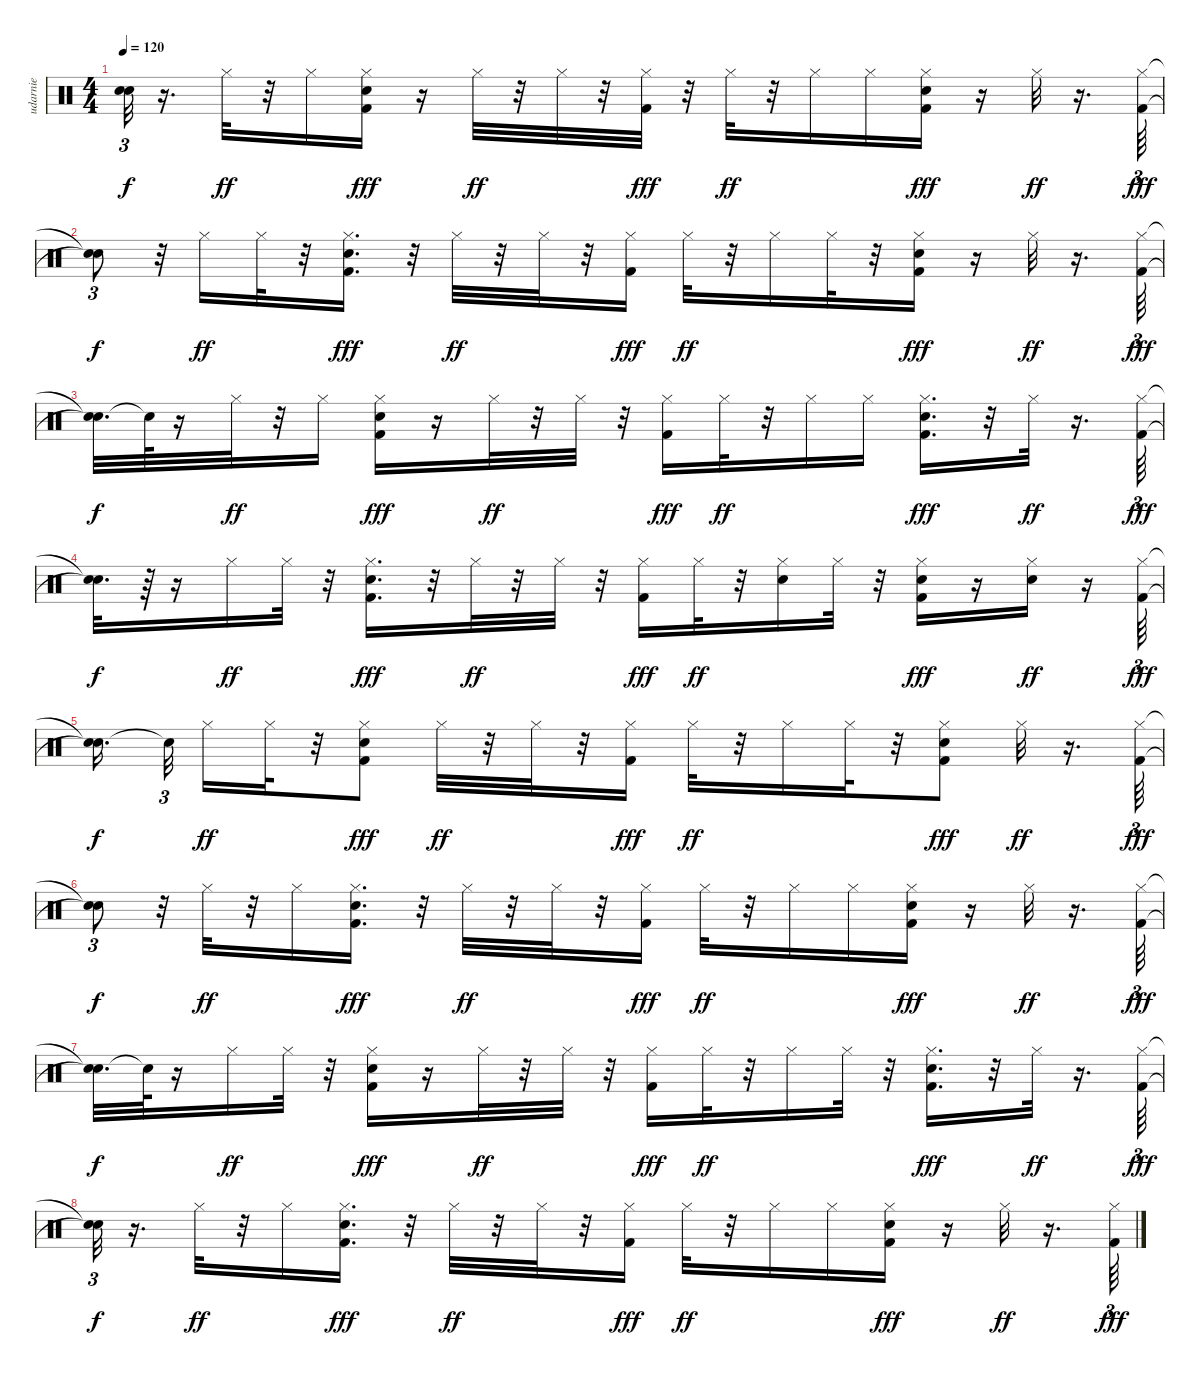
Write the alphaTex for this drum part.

\track ("udarnie" "udarnie") {instrument percussion}
\staff {score}
\articulation defaults
\ts (4 4)
\tempo 120
\clef neutral
\ks c
("Snare (hit)"{t} "Snare (hit)"{t}).32{tu (3 2) dy f} r.16{d} "Hi-Hat (closed)".32{dy ff} r.32 "Hi-Hat (closed)".16 ("Hi-Hat (closed)" "Electric Snare (hit)" "Kick (hit) 2").16{dy fff} r.16 "Hi-Hat (closed)".32{dy ff} r.32 "Hi-Hat (closed)".32 r.32 ("Hi-Hat (closed)" "Kick (hit) 2").32{dy fff} r.32 "Hi-Hat (closed)".32{dy ff} r.32 "Hi-Hat (closed)".16 "Hi-Hat (closed)".16 ("Hi-Hat (closed)" "Electric Snare (hit)" "Kick (hit) 2").16{dy fff} r.16 "Hi-Hat (closed)".32{dy ff} r.16{d} ("Hi-Hat (closed)" "Kick (hit) 2").64{tu (3 2) dy fff} |
("Snare (hit)"{t} "Snare (hit)"{t}).8{tu (3 2) dy f} r.32 "Hi-Hat (closed)".16{dy ff} "Hi-Hat (closed)".32 r.32 ("Hi-Hat (closed)" "Electric Snare (hit)" "Kick (hit) 2").16{d dy fff} r.32 "Hi-Hat (closed)".32{dy ff} r.32 "Hi-Hat (closed)".32 r.32 ("Hi-Hat (closed)" "Kick (hit) 2").16{dy fff} "Hi-Hat (closed)".32{dy ff} r.32 "Hi-Hat (closed)".16 "Hi-Hat (closed)".32 r.32 ("Hi-Hat (closed)" "Electric Snare (hit)" "Kick (hit) 2").16{dy fff} r.16 "Hi-Hat (closed)".32{dy ff} r.16{d} ("Hi-Hat (closed)" "Kick (hit) 2").64{tu (3 2) dy fff} |
("Snare (hit)"{t} "Snare (hit)"{t}).32{d dy f} "Snare (hit)"{t}.64 r.16 "Hi-Hat (closed)".32{dy ff} r.32 "Hi-Hat (closed)".16 ("Hi-Hat (closed)" "Electric Snare (hit)" "Kick (hit) 2").16{dy fff} r.16 "Hi-Hat (closed)".32{dy ff} r.32 "Hi-Hat (closed)".32 r.32 ("Hi-Hat (closed)" "Kick (hit) 2").16{dy fff} "Hi-Hat (closed)".32{dy ff} r.32 "Hi-Hat (closed)".16 "Hi-Hat (closed)".16 ("Hi-Hat (closed)" "Electric Snare (hit)" "Kick (hit) 2").16{d dy fff} r.32 "Hi-Hat (closed)".32{dy ff} r.16{d} ("Hi-Hat (closed)" "Kick (hit) 2").64{tu (3 2) dy fff} |
("Snare (hit)"{t} "Snare (hit)"{t}).32{d dy f} r.64 r.16 "Hi-Hat (closed)".16{dy ff} "Hi-Hat (closed)".32 r.32 ("Hi-Hat (closed)" "Electric Snare (hit)" "Kick (hit) 2").16{d dy fff} r.32 "Hi-Hat (closed)".32{dy ff} r.32 "Hi-Hat (closed)".32 r.32 ("Hi-Hat (closed)" "Kick (hit) 2").16{dy fff} "Hi-Hat (closed)".32{dy ff} r.32 ("Hi-Hat (closed)" "Electric Snare (hit)").16 "Hi-Hat (closed)".32 r.32 ("Hi-Hat (closed)" "Electric Snare (hit)" "Kick (hit) 2").16{dy fff} r.16 ("Hi-Hat (closed)" "Electric Snare (hit)").16{dy ff} r.16 ("Hi-Hat (closed)" "Kick (hit) 2").64{tu (3 2) dy fff} |
("Snare (hit)"{t} "Snare (hit)"{t}).16{d dy f beam splitsecondary} "Snare (hit)"{t}.32{tu (3 2) beam splitsecondary} "Hi-Hat (closed)".16{dy ff} "Hi-Hat (closed)".32 r.32 ("Hi-Hat (closed)" "Electric Snare (hit)" "Kick (hit) 2").8{dy fff} "Hi-Hat (closed)".32{dy ff} r.32 "Hi-Hat (closed)".32 r.32 ("Hi-Hat (closed)" "Kick (hit) 2").16{dy fff} "Hi-Hat (closed)".32{dy ff} r.32 "Hi-Hat (closed)".16 "Hi-Hat (closed)".32 r.32 ("Hi-Hat (closed)" "Electric Snare (hit)" "Kick (hit) 2").8{dy fff} "Hi-Hat (closed)".32{dy ff} r.16{d} ("Hi-Hat (closed)" "Kick (hit) 2").64{tu (3 2) dy fff} |
("Snare (hit)"{t} "Snare (hit)"{t}).8{tu (3 2) dy f} r.32 "Hi-Hat (closed)".32{dy ff} r.32 "Hi-Hat (closed)".16 ("Hi-Hat (closed)" "Electric Snare (hit)" "Kick (hit) 2").16{d dy fff} r.32 "Hi-Hat (closed)".32{dy ff} r.32 "Hi-Hat (closed)".32 r.32 ("Hi-Hat (closed)" "Kick (hit) 2").16{dy fff} "Hi-Hat (closed)".32{dy ff} r.32 "Hi-Hat (closed)".16 "Hi-Hat (closed)".16 ("Hi-Hat (closed)" "Electric Snare (hit)" "Kick (hit) 2").16{dy fff} r.16 "Hi-Hat (closed)".32{dy ff} r.16{d} ("Hi-Hat (closed)" "Kick (hit) 2").64{tu (3 2) dy fff} |
("Snare (hit)"{t} "Snare (hit)"{t}).32{d dy f} "Snare (hit)"{t}.64 r.16 "Hi-Hat (closed)".16{dy ff} "Hi-Hat (closed)".32 r.32 ("Hi-Hat (closed)" "Electric Snare (hit)" "Kick (hit) 2").16{dy fff} r.16 "Hi-Hat (closed)".32{dy ff} r.32 "Hi-Hat (closed)".32 r.32 ("Hi-Hat (closed)" "Kick (hit) 2").16{dy fff} "Hi-Hat (closed)".32{dy ff} r.32 "Hi-Hat (closed)".16 "Hi-Hat (closed)".32 r.32 ("Hi-Hat (closed)" "Electric Snare (hit)" "Kick (hit) 2").16{d dy fff} r.32 "Hi-Hat (closed)".32{dy ff} r.16{d} ("Hi-Hat (closed)" "Kick (hit) 2").64{tu (3 2) dy fff} |
("Snare (hit)"{t} "Snare (hit)"{t}).32{tu (3 2) dy f} r.16{d} "Hi-Hat (closed)".32{dy ff} r.32 "Hi-Hat (closed)".16 ("Hi-Hat (closed)" "Electric Snare (hit)" "Kick (hit) 2").16{d dy fff} r.32 "Hi-Hat (closed)".32{dy ff} r.32 "Hi-Hat (closed)".32 r.32 ("Hi-Hat (closed)" "Kick (hit) 2").16{dy fff} "Hi-Hat (closed)".32{dy ff} r.32 "Hi-Hat (closed)".16 "Hi-Hat (closed)".16 ("Hi-Hat (closed)" "Electric Snare (hit)" "Kick (hit) 2").16{dy fff} r.16 "Hi-Hat (closed)".32{dy ff} r.16{d} ("Hi-Hat (closed)" "Kick (hit) 2").64{tu (3 2) dy fff}
